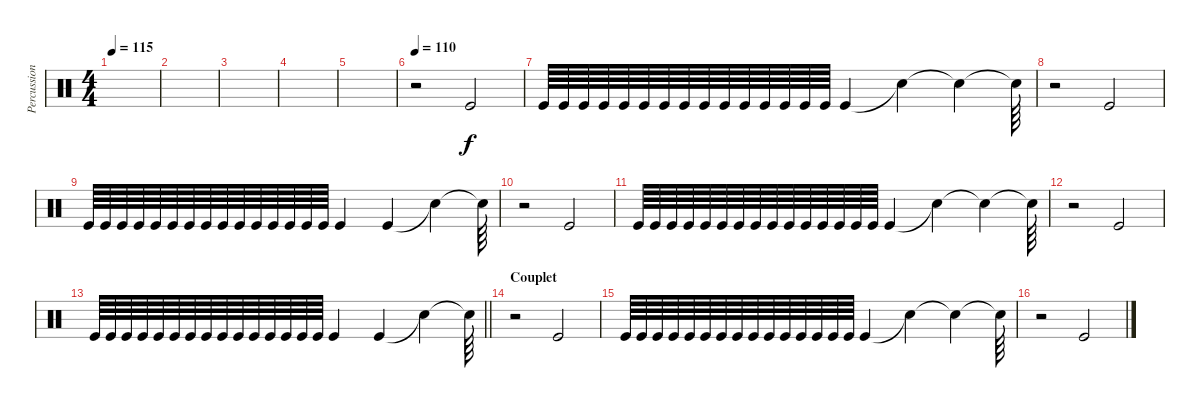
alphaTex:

\track ("Percussions" "Percussion") {instrument percussion}
\staff {score}
\articulation defaults
\ts (4 4)
\tempo 115
\clef neutral
\ks c
|
|
|
|
|
\tempo 110
r.2 "Kick (hit)".2 |
"Kick (hit)".64{volume 0} "Kick (hit)".64 "Kick (hit)".64 "Kick (hit)".64 "Kick (hit)".64{volume 2} "Kick (hit)".64 "Kick (hit)".64 "Kick (hit)".64 "Kick (hit)".64 "Kick (hit)".64{volume 5} "Kick (hit)".64 "Kick (hit)".64 "Kick (hit)".64 "Kick (hit)".64{volume 10} "Kick (hit)".64 "Kick (hit)".4{volume 13} "Snare (hit)"{t}.4 "Snare (hit)"{t}.4 "Snare (hit)"{t}.64 |
r.2 "Kick (hit)".2 |
"Kick (hit)".64{volume 0} "Kick (hit)".64 "Kick (hit)".64 "Kick (hit)".64 "Kick (hit)".64{volume 2} "Kick (hit)".64 "Kick (hit)".64 "Kick (hit)".64 "Kick (hit)".64 "Kick (hit)".64{volume 5} "Kick (hit)".64 "Kick (hit)".64 "Kick (hit)".64 "Kick (hit)".64{volume 10} "Kick (hit)".64 "Kick (hit)".4{volume 13} "Kick (hit)".4{volume 13} "Snare (hit)"{t}.4 "Snare (hit)"{t}.64 |
r.2 "Kick (hit)".2 |
"Kick (hit)".64{volume 0} "Kick (hit)".64 "Kick (hit)".64 "Kick (hit)".64 "Kick (hit)".64{volume 2} "Kick (hit)".64 "Kick (hit)".64 "Kick (hit)".64 "Kick (hit)".64 "Kick (hit)".64{volume 5} "Kick (hit)".64 "Kick (hit)".64 "Kick (hit)".64 "Kick (hit)".64{volume 10} "Kick (hit)".64 "Kick (hit)".4{volume 13} "Snare (hit)"{t}.4 "Snare (hit)"{t}.4 "Snare (hit)"{t}.64 |
r.2 "Kick (hit)".2 |
\barLineRight lightlight "Kick (hit)".64{volume 0} "Kick (hit)".64 "Kick (hit)".64 "Kick (hit)".64 "Kick (hit)".64{volume 2} "Kick (hit)".64 "Kick (hit)".64 "Kick (hit)".64 "Kick (hit)".64 "Kick (hit)".64{volume 5} "Kick (hit)".64 "Kick (hit)".64 "Kick (hit)".64 "Kick (hit)".64{volume 10} "Kick (hit)".64 "Kick (hit)".4{volume 13} "Kick (hit)".4{volume 13} "Snare (hit)"{t}.4 "Snare (hit)"{t}.64
|
\section ("" "Couplet")
r.2 "Kick (hit)".2 |
"Kick (hit)".64{volume 0} "Kick (hit)".64 "Kick (hit)".64 "Kick (hit)".64 "Kick (hit)".64{volume 2} "Kick (hit)".64 "Kick (hit)".64 "Kick (hit)".64 "Kick (hit)".64 "Kick (hit)".64{volume 5} "Kick (hit)".64 "Kick (hit)".64 "Kick (hit)".64 "Kick (hit)".64{volume 10} "Kick (hit)".64 "Kick (hit)".4{volume 13} "Snare (hit)"{t}.4 "Snare (hit)"{t}.4 "Snare (hit)"{t}.64 |
r.2 "Kick (hit)".2
